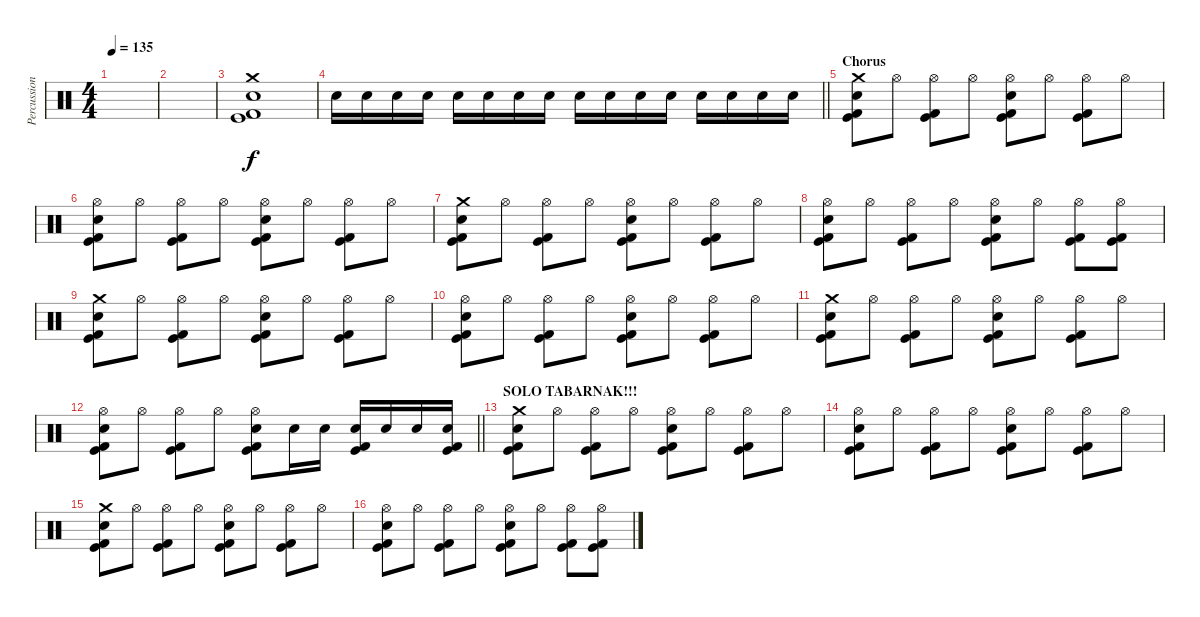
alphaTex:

\track ("Percussions" "Percussion") {instrument percussion}
\staff {score}
\articulation defaults
\ts (4 4)
\tempo 135
\clef neutral
\ks c
|
|
("Crash medium (hit)" "Electric Snare (hit)" "Kick (hit)" "Kick (hit) 2").1 |
\barLineRight lightlight "Electric Snare (hit)".16 "Electric Snare (hit)".16 "Electric Snare (hit)".16 "Electric Snare (hit)".16 "Electric Snare (hit)".16 "Electric Snare (hit)".16 "Electric Snare (hit)".16 "Electric Snare (hit)".16 "Electric Snare (hit)".16 "Electric Snare (hit)".16 "Electric Snare (hit)".16 "Electric Snare (hit)".16 "Electric Snare (hit)".16 "Electric Snare (hit)".16 "Electric Snare (hit)".16 "Electric Snare (hit)".16
|
\section ("" "Chorus")
("Crash medium (hit)" "Electric Snare (hit)" "Kick (hit)" "Kick (hit) 2").8 "Hi-Hat (open)".8 ("Hi-Hat (open)" "Kick (hit)" "Kick (hit) 2").8 "Hi-Hat (open)".8 ("Hi-Hat (open)" "Electric Snare (hit)" "Kick (hit)" "Kick (hit) 2").8 "Hi-Hat (open)".8 ("Hi-Hat (open)" "Kick (hit)" "Kick (hit) 2").8 "Hi-Hat (open)".8 |
("Hi-Hat (open)" "Electric Snare (hit)" "Kick (hit)" "Kick (hit) 2").8 "Hi-Hat (open)".8 ("Hi-Hat (open)" "Kick (hit)" "Kick (hit) 2").8 "Hi-Hat (open)".8 ("Hi-Hat (open)" "Electric Snare (hit)" "Kick (hit) 2" "Kick (hit)").8 "Hi-Hat (open)".8 ("Hi-Hat (open)" "Kick (hit)" "Kick (hit) 2").8 "Hi-Hat (open)".8 |
("Crash medium (hit)" "Electric Snare (hit)" "Kick (hit)" "Kick (hit) 2").8 "Hi-Hat (open)".8 ("Hi-Hat (open)" "Kick (hit)" "Kick (hit) 2").8 "Hi-Hat (open)".8 ("Hi-Hat (open)" "Electric Snare (hit)" "Kick (hit)" "Kick (hit) 2").8 "Hi-Hat (open)".8 ("Hi-Hat (open)" "Kick (hit)" "Kick (hit) 2").8 "Hi-Hat (open)".8 |
("Hi-Hat (open)" "Electric Snare (hit)" "Kick (hit)" "Kick (hit) 2").8 "Hi-Hat (open)".8 ("Hi-Hat (open)" "Kick (hit)" "Kick (hit) 2").8 "Hi-Hat (open)".8 ("Hi-Hat (open)" "Electric Snare (hit)" "Kick (hit) 2" "Kick (hit)").8 "Hi-Hat (open)".8 ("Hi-Hat (open)" "Kick (hit)" "Kick (hit) 2").8 ("Hi-Hat (open)" "Kick (hit)" "Kick (hit) 2").8 |
("Crash medium (hit)" "Electric Snare (hit)" "Kick (hit)" "Kick (hit) 2").8 "Hi-Hat (open)".8 ("Hi-Hat (open)" "Kick (hit)" "Kick (hit) 2").8 "Hi-Hat (open)".8 ("Hi-Hat (open)" "Electric Snare (hit)" "Kick (hit)" "Kick (hit) 2").8 "Hi-Hat (open)".8 ("Hi-Hat (open)" "Kick (hit)" "Kick (hit) 2").8 "Hi-Hat (open)".8 |
("Hi-Hat (open)" "Electric Snare (hit)" "Kick (hit)" "Kick (hit) 2").8 "Hi-Hat (open)".8 ("Hi-Hat (open)" "Kick (hit)" "Kick (hit) 2").8 "Hi-Hat (open)".8 ("Hi-Hat (open)" "Electric Snare (hit)" "Kick (hit) 2" "Kick (hit)").8 "Hi-Hat (open)".8 ("Hi-Hat (open)" "Kick (hit)" "Kick (hit) 2").8 "Hi-Hat (open)".8 |
("Crash medium (hit)" "Electric Snare (hit)" "Kick (hit)" "Kick (hit) 2").8 "Hi-Hat (open)".8 ("Hi-Hat (open)" "Kick (hit)" "Kick (hit) 2").8 "Hi-Hat (open)".8 ("Hi-Hat (open)" "Electric Snare (hit)" "Kick (hit)" "Kick (hit) 2").8 "Hi-Hat (open)".8 ("Hi-Hat (open)" "Kick (hit)" "Kick (hit) 2").8 "Hi-Hat (open)".8 |
\barLineRight lightlight
("Hi-Hat (open)" "Electric Snare (hit)" "Kick (hit)" "Kick (hit) 2").8 "Hi-Hat (open)".8 ("Hi-Hat (open)" "Kick (hit)" "Kick (hit) 2").8 "Hi-Hat (open)".8 ("Hi-Hat (open)" "Electric Snare (hit)" "Kick (hit) 2" "Kick (hit)").8 "Electric Snare (hit)".16 "Electric Snare (hit)".16 ("Electric Snare (hit)" "Kick (hit)" "Kick (hit) 2").16 "Electric Snare (hit)".16 "Electric Snare (hit)".16 ("Electric Snare (hit)" "Kick (hit)" "Kick (hit) 2").16 |
\section ("" "SOLO TABARNAK!!!")
("Crash medium (hit)" "Electric Snare (hit)" "Kick (hit)" "Kick (hit) 2").8 "Hi-Hat (open)".8 ("Hi-Hat (open)" "Kick (hit)" "Kick (hit) 2").8 "Hi-Hat (open)".8 ("Hi-Hat (open)" "Electric Snare (hit)" "Kick (hit)" "Kick (hit) 2").8 "Hi-Hat (open)".8 ("Hi-Hat (open)" "Kick (hit)" "Kick (hit) 2").8 "Hi-Hat (open)".8 |
("Hi-Hat (open)" "Electric Snare (hit)" "Kick (hit)" "Kick (hit) 2").8 "Hi-Hat (open)".8 ("Hi-Hat (open)" "Kick (hit)" "Kick (hit) 2").8 "Hi-Hat (open)".8 ("Hi-Hat (open)" "Electric Snare (hit)" "Kick (hit) 2" "Kick (hit)").8 "Hi-Hat (open)".8 ("Hi-Hat (open)" "Kick (hit)" "Kick (hit) 2").8 "Hi-Hat (open)".8 |
("Crash medium (hit)" "Electric Snare (hit)" "Kick (hit)" "Kick (hit) 2").8 "Hi-Hat (open)".8 ("Hi-Hat (open)" "Kick (hit)" "Kick (hit) 2").8 "Hi-Hat (open)".8 ("Hi-Hat (open)" "Electric Snare (hit)" "Kick (hit)" "Kick (hit) 2").8 "Hi-Hat (open)".8 ("Hi-Hat (open)" "Kick (hit)" "Kick (hit) 2").8 "Hi-Hat (open)".8 |
("Hi-Hat (open)" "Electric Snare (hit)" "Kick (hit)" "Kick (hit) 2").8 "Hi-Hat (open)".8 ("Hi-Hat (open)" "Kick (hit)" "Kick (hit) 2").8 "Hi-Hat (open)".8 ("Hi-Hat (open)" "Electric Snare (hit)" "Kick (hit) 2" "Kick (hit)").8 "Hi-Hat (open)".8 ("Hi-Hat (open)" "Kick (hit)" "Kick (hit) 2").8 ("Hi-Hat (open)" "Kick (hit)" "Kick (hit) 2").8
